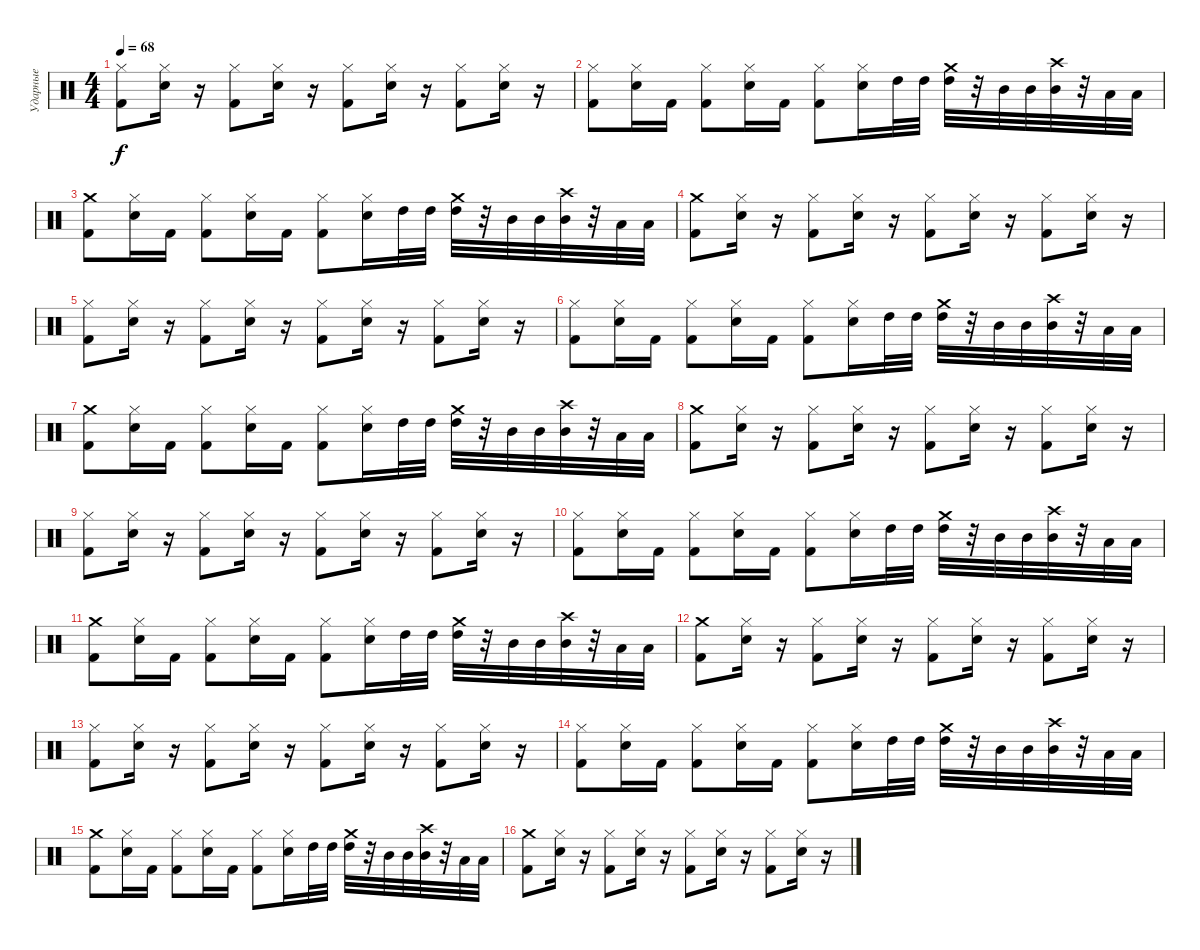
\track ("Ударные" "Ударные") {instrument percussion}
\staff {score}
\articulation defaults
\ts (4 4)
\tempo 68
\clef neutral
\ks c
("Hi-Hat (closed)" "Kick (hit) 2").8{dy f} ("Hi-Hat (closed)" "Snare (hit) 2").16 r.16 ("Hi-Hat (closed)" "Kick (hit) 2").8 ("Hi-Hat (closed)" "Snare (hit) 2").16 r.16 ("Hi-Hat (closed)" "Kick (hit) 2").8 ("Hi-Hat (closed)" "Snare (hit) 2").16 r.16 ("Hi-Hat (closed)" "Kick (hit) 2").8 ("Hi-Hat (closed)" "Snare (hit) 2").16 r.16 |
("Hi-Hat (closed)" "Kick (hit) 2").8 ("Hi-Hat (closed)" "Snare (hit) 2").16 "Kick (hit) 2".16 ("Hi-Hat (closed)" "Kick (hit) 2").8 ("Hi-Hat (closed)" "Snare (hit) 2").16 "Kick (hit) 2".16 ("Hi-Hat (closed)" "Kick (hit) 2").8 ("Hi-Hat (closed)" "Snare (hit) 2").16 "High Tom (hit)".32 "High Tom (hit)".32 ("High Tom (hit)" "Crash medium (hit)").32 r.32 "Mid Tom (hit)".32 "Mid Tom (hit)".32 ("Mid Tom (hit)" "Crash high (hit)").32 r.32 "Low Tom (hit)".32 "Low Tom (hit)".32 |
("Crash medium (hit)" "Kick (hit) 2").8 ("Hi-Hat (closed)" "Snare (hit) 2").16 "Kick (hit) 2".16 ("Hi-Hat (closed)" "Kick (hit) 2").8 ("Hi-Hat (closed)" "Snare (hit) 2").16 "Kick (hit) 2".16 ("Hi-Hat (closed)" "Kick (hit) 2").8 ("Hi-Hat (closed)" "Snare (hit) 2").16 "High Tom (hit)".32 "High Tom (hit)".32 ("High Tom (hit)" "Crash medium (hit)").32 r.32 "Mid Tom (hit)".32 "Mid Tom (hit)".32 ("Mid Tom (hit)" "Crash high (hit)").32 r.32 "Low Tom (hit)".32 "Low Tom (hit)".32 |
("Crash medium (hit)" "Kick (hit) 2").8 ("Hi-Hat (closed)" "Snare (hit) 2").16 r.16 ("Hi-Hat (closed)" "Kick (hit) 2").8 ("Hi-Hat (closed)" "Snare (hit) 2").16 r.16 ("Hi-Hat (closed)" "Kick (hit) 2").8 ("Hi-Hat (closed)" "Snare (hit) 2").16 r.16 ("Hi-Hat (closed)" "Kick (hit) 2").8 ("Hi-Hat (closed)" "Snare (hit) 2").16 r.16 |
("Hi-Hat (closed)" "Kick (hit) 2").8 ("Hi-Hat (closed)" "Snare (hit) 2").16 r.16 ("Hi-Hat (closed)" "Kick (hit) 2").8 ("Hi-Hat (closed)" "Snare (hit) 2").16 r.16 ("Hi-Hat (closed)" "Kick (hit) 2").8 ("Hi-Hat (closed)" "Snare (hit) 2").16 r.16 ("Hi-Hat (closed)" "Kick (hit) 2").8 ("Hi-Hat (closed)" "Snare (hit) 2").16 r.16 |
("Hi-Hat (closed)" "Kick (hit) 2").8 ("Hi-Hat (closed)" "Snare (hit) 2").16 "Kick (hit) 2".16 ("Hi-Hat (closed)" "Kick (hit) 2").8 ("Hi-Hat (closed)" "Snare (hit) 2").16 "Kick (hit) 2".16 ("Hi-Hat (closed)" "Kick (hit) 2").8 ("Hi-Hat (closed)" "Snare (hit) 2").16 "High Tom (hit)".32 "High Tom (hit)".32 ("High Tom (hit)" "Crash medium (hit)").32 r.32 "Mid Tom (hit)".32 "Mid Tom (hit)".32 ("Mid Tom (hit)" "Crash high (hit)").32 r.32 "Low Tom (hit)".32 "Low Tom (hit)".32 |
("Crash medium (hit)" "Kick (hit) 2").8 ("Hi-Hat (closed)" "Snare (hit) 2").16 "Kick (hit) 2".16 ("Hi-Hat (closed)" "Kick (hit) 2").8 ("Hi-Hat (closed)" "Snare (hit) 2").16 "Kick (hit) 2".16 ("Hi-Hat (closed)" "Kick (hit) 2").8 ("Hi-Hat (closed)" "Snare (hit) 2").16 "High Tom (hit)".32 "High Tom (hit)".32 ("High Tom (hit)" "Crash medium (hit)").32 r.32 "Mid Tom (hit)".32 "Mid Tom (hit)".32 ("Mid Tom (hit)" "Crash high (hit)").32 r.32 "Low Tom (hit)".32 "Low Tom (hit)".32 |
("Crash medium (hit)" "Kick (hit) 2").8 ("Hi-Hat (closed)" "Snare (hit) 2").16 r.16 ("Hi-Hat (closed)" "Kick (hit) 2").8 ("Hi-Hat (closed)" "Snare (hit) 2").16 r.16 ("Hi-Hat (closed)" "Kick (hit) 2").8 ("Hi-Hat (closed)" "Snare (hit) 2").16 r.16 ("Hi-Hat (closed)" "Kick (hit) 2").8 ("Hi-Hat (closed)" "Snare (hit) 2").16 r.16 |
("Hi-Hat (closed)" "Kick (hit) 2").8 ("Hi-Hat (closed)" "Snare (hit) 2").16 r.16 ("Hi-Hat (closed)" "Kick (hit) 2").8 ("Hi-Hat (closed)" "Snare (hit) 2").16 r.16 ("Hi-Hat (closed)" "Kick (hit) 2").8 ("Hi-Hat (closed)" "Snare (hit) 2").16 r.16 ("Hi-Hat (closed)" "Kick (hit) 2").8 ("Hi-Hat (closed)" "Snare (hit) 2").16 r.16 |
("Hi-Hat (closed)" "Kick (hit) 2").8 ("Hi-Hat (closed)" "Snare (hit) 2").16 "Kick (hit) 2".16 ("Hi-Hat (closed)" "Kick (hit) 2").8 ("Hi-Hat (closed)" "Snare (hit) 2").16 "Kick (hit) 2".16 ("Hi-Hat (closed)" "Kick (hit) 2").8 ("Hi-Hat (closed)" "Snare (hit) 2").16 "High Tom (hit)".32 "High Tom (hit)".32 ("High Tom (hit)" "Crash medium (hit)").32 r.32 "Mid Tom (hit)".32 "Mid Tom (hit)".32 ("Mid Tom (hit)" "Crash high (hit)").32 r.32 "Low Tom (hit)".32 "Low Tom (hit)".32 |
("Crash medium (hit)" "Kick (hit) 2").8 ("Hi-Hat (closed)" "Snare (hit) 2").16 "Kick (hit) 2".16 ("Hi-Hat (closed)" "Kick (hit) 2").8 ("Hi-Hat (closed)" "Snare (hit) 2").16 "Kick (hit) 2".16 ("Hi-Hat (closed)" "Kick (hit) 2").8 ("Hi-Hat (closed)" "Snare (hit) 2").16 "High Tom (hit)".32 "High Tom (hit)".32 ("High Tom (hit)" "Crash medium (hit)").32 r.32 "Mid Tom (hit)".32 "Mid Tom (hit)".32 ("Mid Tom (hit)" "Crash high (hit)").32 r.32 "Low Tom (hit)".32 "Low Tom (hit)".32 |
("Crash medium (hit)" "Kick (hit) 2").8 ("Hi-Hat (closed)" "Snare (hit) 2").16 r.16 ("Hi-Hat (closed)" "Kick (hit) 2").8 ("Hi-Hat (closed)" "Snare (hit) 2").16 r.16 ("Hi-Hat (closed)" "Kick (hit) 2").8 ("Hi-Hat (closed)" "Snare (hit) 2").16 r.16 ("Hi-Hat (closed)" "Kick (hit) 2").8 ("Hi-Hat (closed)" "Snare (hit) 2").16 r.16 |
("Hi-Hat (closed)" "Kick (hit) 2").8 ("Hi-Hat (closed)" "Snare (hit) 2").16 r.16 ("Hi-Hat (closed)" "Kick (hit) 2").8 ("Hi-Hat (closed)" "Snare (hit) 2").16 r.16 ("Hi-Hat (closed)" "Kick (hit) 2").8 ("Hi-Hat (closed)" "Snare (hit) 2").16 r.16 ("Hi-Hat (closed)" "Kick (hit) 2").8 ("Hi-Hat (closed)" "Snare (hit) 2").16 r.16 |
("Hi-Hat (closed)" "Kick (hit) 2").8 ("Hi-Hat (closed)" "Snare (hit) 2").16 "Kick (hit) 2".16 ("Hi-Hat (closed)" "Kick (hit) 2").8 ("Hi-Hat (closed)" "Snare (hit) 2").16 "Kick (hit) 2".16 ("Hi-Hat (closed)" "Kick (hit) 2").8 ("Hi-Hat (closed)" "Snare (hit) 2").16 "High Tom (hit)".32 "High Tom (hit)".32 ("High Tom (hit)" "Crash medium (hit)").32 r.32 "Mid Tom (hit)".32 "Mid Tom (hit)".32 ("Mid Tom (hit)" "Crash high (hit)").32 r.32 "Low Tom (hit)".32 "Low Tom (hit)".32 |
("Crash medium (hit)" "Kick (hit) 2").8 ("Hi-Hat (closed)" "Snare (hit) 2").16 "Kick (hit) 2".16 ("Hi-Hat (closed)" "Kick (hit) 2").8 ("Hi-Hat (closed)" "Snare (hit) 2").16 "Kick (hit) 2".16 ("Hi-Hat (closed)" "Kick (hit) 2").8 ("Hi-Hat (closed)" "Snare (hit) 2").16 "High Tom (hit)".32 "High Tom (hit)".32 ("High Tom (hit)" "Crash medium (hit)").32 r.32 "Mid Tom (hit)".32 "Mid Tom (hit)".32 ("Mid Tom (hit)" "Crash high (hit)").32 r.32 "Low Tom (hit)".32 "Low Tom (hit)".32 |
("Crash medium (hit)" "Kick (hit) 2").8 ("Hi-Hat (closed)" "Snare (hit) 2").16 r.16 ("Hi-Hat (closed)" "Kick (hit) 2").8 ("Hi-Hat (closed)" "Snare (hit) 2").16 r.16 ("Hi-Hat (closed)" "Kick (hit) 2").8 ("Hi-Hat (closed)" "Snare (hit) 2").16 r.16 ("Hi-Hat (closed)" "Kick (hit) 2").8 ("Hi-Hat (closed)" "Snare (hit) 2").16 r.16
